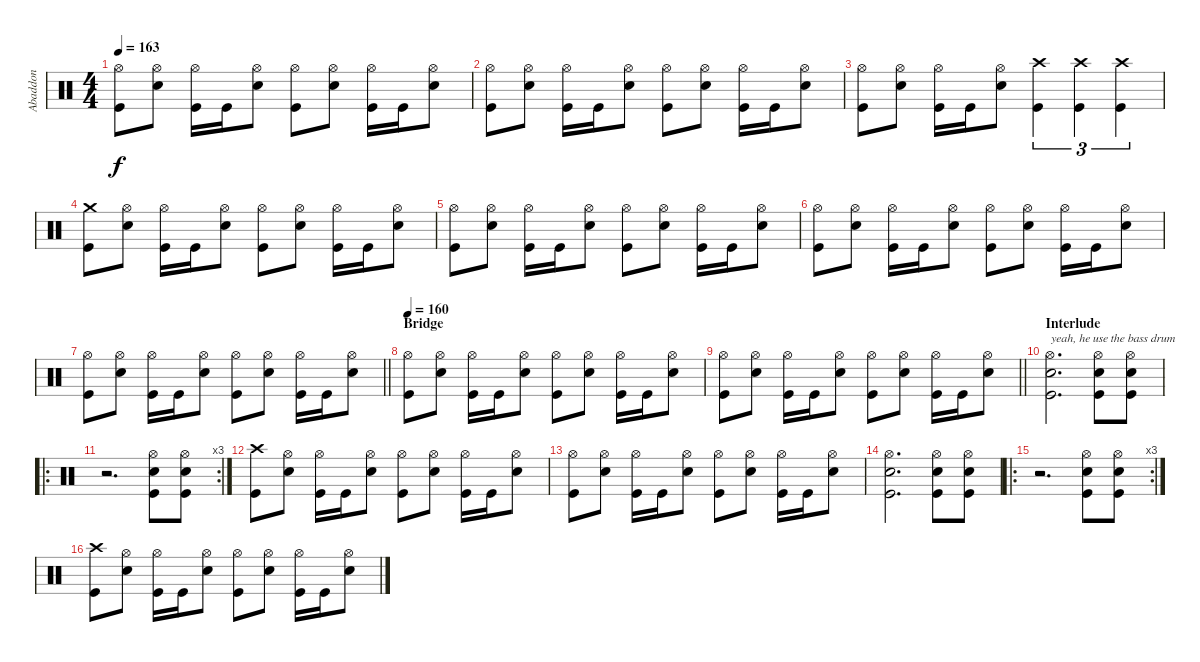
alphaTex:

\track ("Abaddon" "Abaddon") {instrument percussion}
\staff {score}
\articulation defaults
\ts (4 4)
\tempo 163
\clef neutral
\ks c
("Hi-Hat (open)" "Kick (hit)").8{dy f} ("Hi-Hat (open)" "Electric Snare (hit)").8 ("Hi-Hat (open)" "Kick (hit)").16 "Kick (hit)".16 ("Hi-Hat (open)" "Electric Snare (hit)").8 ("Hi-Hat (open)" "Kick (hit)").8 ("Hi-Hat (open)" "Electric Snare (hit)").8 ("Hi-Hat (open)" "Kick (hit)").16 "Kick (hit)".16 ("Hi-Hat (open)" "Electric Snare (hit)").8 |
("Hi-Hat (open)" "Kick (hit)").8 ("Hi-Hat (open)" "Electric Snare (hit)").8 ("Hi-Hat (open)" "Kick (hit)").16 "Kick (hit)".16 ("Hi-Hat (open)" "Electric Snare (hit)").8 ("Hi-Hat (open)" "Kick (hit)").8 ("Hi-Hat (open)" "Electric Snare (hit)").8 ("Hi-Hat (open)" "Kick (hit)").16 "Kick (hit)".16 ("Hi-Hat (open)" "Electric Snare (hit)").8 |
("Hi-Hat (open)" "Kick (hit)").8 ("Hi-Hat (open)" "Electric Snare (hit)").8 ("Hi-Hat (open)" "Kick (hit)").16 "Kick (hit)".16 ("Hi-Hat (open)" "Electric Snare (hit)").8 ("Crash high (hit)" "Kick (hit)").4{tu (3 2)} ("Crash high (hit)" "Kick (hit)").4{tu (3 2)} ("Crash high (hit)" "Kick (hit)").4{tu (3 2)} |
("Crash medium (hit)" "Kick (hit)").8 ("Hi-Hat (open)" "Electric Snare (hit)").8 ("Hi-Hat (open)" "Kick (hit)").16 "Kick (hit)".16 ("Hi-Hat (open)" "Electric Snare (hit)").8 ("Hi-Hat (open)" "Kick (hit)").8 ("Hi-Hat (open)" "Electric Snare (hit)").8 ("Hi-Hat (open)" "Kick (hit)").16 "Kick (hit)".16 ("Hi-Hat (open)" "Electric Snare (hit)").8 |
("Hi-Hat (open)" "Kick (hit)").8 ("Hi-Hat (open)" "Electric Snare (hit)").8 ("Hi-Hat (open)" "Kick (hit)").16 "Kick (hit)".16 ("Hi-Hat (open)" "Electric Snare (hit)").8 ("Hi-Hat (open)" "Kick (hit)").8 ("Hi-Hat (open)" "Electric Snare (hit)").8 ("Hi-Hat (open)" "Kick (hit)").16 "Kick (hit)".16 ("Hi-Hat (open)" "Electric Snare (hit)").8 |
("Hi-Hat (open)" "Kick (hit)").8 ("Hi-Hat (open)" "Electric Snare (hit)").8 ("Hi-Hat (open)" "Kick (hit)").16 "Kick (hit)".16 ("Hi-Hat (open)" "Electric Snare (hit)").8 ("Hi-Hat (open)" "Kick (hit)").8 ("Hi-Hat (open)" "Electric Snare (hit)").8 ("Hi-Hat (open)" "Kick (hit)").16 "Kick (hit)".16 ("Hi-Hat (open)" "Electric Snare (hit)").8 |
\barLineRight lightlight
("Hi-Hat (open)" "Kick (hit)").8 ("Hi-Hat (open)" "Electric Snare (hit)").8 ("Hi-Hat (open)" "Kick (hit)").16 "Kick (hit)".16 ("Hi-Hat (open)" "Electric Snare (hit)").8 ("Hi-Hat (open)" "Kick (hit)").8 ("Hi-Hat (open)" "Electric Snare (hit)").8 ("Hi-Hat (open)" "Kick (hit)").16 "Kick (hit)".16 ("Hi-Hat (open)" "Electric Snare (hit)").8 |
\section ("" "Bridge")
\tempo 160
("Hi-Hat (open)" "Kick (hit)").8 ("Hi-Hat (open)" "Electric Snare (hit)").8 ("Hi-Hat (open)" "Kick (hit)").16 "Kick (hit)".16 ("Hi-Hat (open)" "Electric Snare (hit)").8 ("Hi-Hat (open)" "Kick (hit)").8 ("Hi-Hat (open)" "Electric Snare (hit)").8 ("Hi-Hat (open)" "Kick (hit)").16 "Kick (hit)".16 ("Hi-Hat (open)" "Electric Snare (hit)").8 |
\barLineRight lightlight
("Hi-Hat (open)" "Kick (hit)").8 ("Hi-Hat (open)" "Electric Snare (hit)").8 ("Hi-Hat (open)" "Kick (hit)").16 "Kick (hit)".16 ("Hi-Hat (open)" "Electric Snare (hit)").8 ("Hi-Hat (open)" "Kick (hit)").8 ("Hi-Hat (open)" "Electric Snare (hit)").8 ("Hi-Hat (open)" "Kick (hit)").16 "Kick (hit)".16 ("Hi-Hat (open)" "Electric Snare (hit)").8 |
\section ("" "Interlude")
("Hi-Hat (open)" "Electric Snare (hit)" "Kick (hit)").2{d txt "yeah, he use the bass drum"} ("Hi-Hat (open)" "Electric Snare (hit)" "Kick (hit)").8 ("Hi-Hat (open)" "Electric Snare (hit)" "Kick (hit)").8 |
\ro
\rc 3
r.2{d} ("Hi-Hat (open)" "Electric Snare (hit)" "Kick (hit)").8 ("Hi-Hat (open)" "Electric Snare (hit)" "Kick (hit)").8 |
("Crash high (hit)" "Kick (hit)").8 ("Hi-Hat (open)" "Electric Snare (hit)").8 ("Hi-Hat (open)" "Kick (hit)").16 "Kick (hit)".16 ("Hi-Hat (open)" "Electric Snare (hit)").8 ("Hi-Hat (open)" "Kick (hit)").8 ("Hi-Hat (open)" "Electric Snare (hit)").8 ("Hi-Hat (open)" "Kick (hit)").16 "Kick (hit)".16 ("Hi-Hat (open)" "Electric Snare (hit)").8 |
("Hi-Hat (open)" "Kick (hit)").8 ("Hi-Hat (open)" "Electric Snare (hit)").8 ("Hi-Hat (open)" "Kick (hit)").16 "Kick (hit)".16 ("Hi-Hat (open)" "Electric Snare (hit)").8 ("Hi-Hat (open)" "Kick (hit)").8 ("Hi-Hat (open)" "Electric Snare (hit)").8 ("Hi-Hat (open)" "Kick (hit)").16 "Kick (hit)".16 ("Hi-Hat (open)" "Electric Snare (hit)").8 |
("Hi-Hat (open)" "Electric Snare (hit)" "Kick (hit)").2{d} ("Hi-Hat (open)" "Electric Snare (hit)" "Kick (hit)").8 ("Hi-Hat (open)" "Electric Snare (hit)" "Kick (hit)").8 |
\ro
\rc 3
r.2{d} ("Hi-Hat (open)" "Electric Snare (hit)" "Kick (hit)").8 ("Hi-Hat (open)" "Electric Snare (hit)" "Kick (hit)").8 |
("Crash high (hit)" "Kick (hit)").8 ("Hi-Hat (open)" "Electric Snare (hit)").8 ("Hi-Hat (open)" "Kick (hit)").16 "Kick (hit)".16 ("Hi-Hat (open)" "Electric Snare (hit)").8 ("Hi-Hat (open)" "Kick (hit)").8 ("Hi-Hat (open)" "Electric Snare (hit)").8 ("Hi-Hat (open)" "Kick (hit)").16 "Kick (hit)".16 ("Hi-Hat (open)" "Electric Snare (hit)").8
